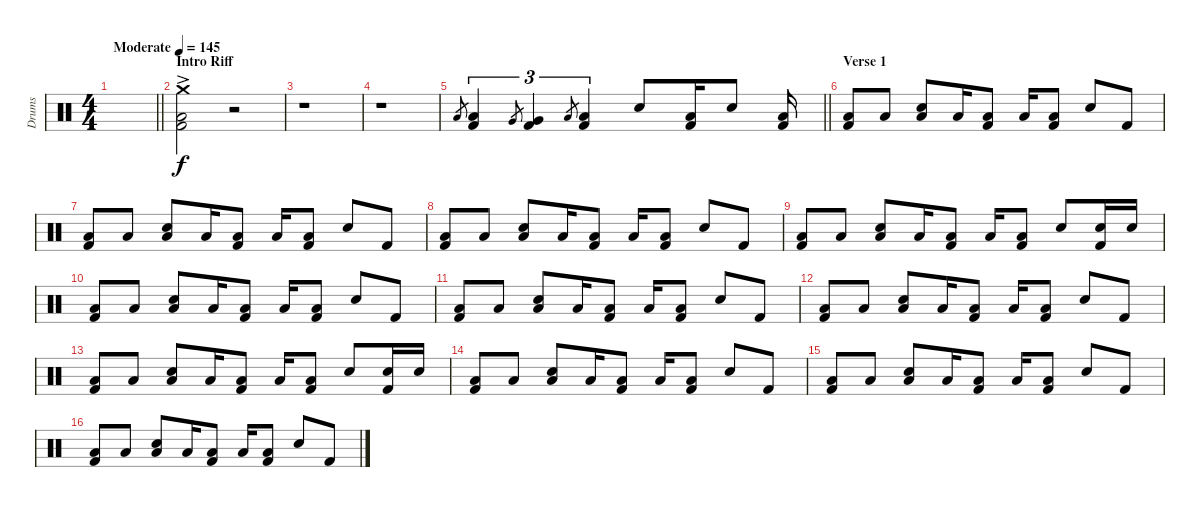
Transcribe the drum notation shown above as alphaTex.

\track ("Drums" "Drums") {instrument percussion}
\staff {score}
\articulation defaults
\ts (4 4)
\tempo (145 "Moderate")
\clef neutral
\barLineRight lightlight
\ks c
|
\section ("" "Intro Riff")
("Crash medium (hit)"{ac} "Low Floor Tom (hit)" "Kick (hit) 2").2 r.2 |
r.1 |
r.1 |
\barLineRight lightlight "Low Tom (hit)".8{gr dy f}
("Low Tom (hit)" "Kick (hit) 2").4{tu (3 2)} "Very Low Tom (hit)".8{gr} ("Very Low Tom (hit)" "Kick (hit) 2").4{tu (3 2)} "Low Floor Tom (hit)".8{gr} ("Low Floor Tom (hit)" "Kick (hit) 2").4{tu (3 2)} "Snare (hit) 2".8 ("Kick (hit) 2" "Low Floor Tom (hit)").16 "Snare (hit) 2".8 ("Kick (hit) 2" "Low Floor Tom (hit)").16 |
\section ("" "Verse 1")
("Low Tom (hit)" "Kick (hit) 2").8 "Low Tom (hit)".8 ("Low Tom (hit)" "Snare (hit) 2").8 "Low Floor Tom (hit)".16 ("Low Floor Tom (hit)" "Kick (hit) 2").8 "Low Floor Tom (hit)".16 ("Low Floor Tom (hit)" "Kick (hit) 2").8 "Snare (hit) 2".8 "Kick (hit) 2".8 |
("Low Tom (hit)" "Kick (hit) 2").8 "Low Tom (hit)".8 ("Low Tom (hit)" "Snare (hit) 2").8 "Low Floor Tom (hit)".16 ("Low Floor Tom (hit)" "Kick (hit) 2").8 "Low Floor Tom (hit)".16 ("Low Floor Tom (hit)" "Kick (hit) 2").8 "Snare (hit) 2".8 "Kick (hit) 2".8 |
("Low Tom (hit)" "Kick (hit) 2").8 "Low Tom (hit)".8 ("Low Tom (hit)" "Snare (hit) 2").8 "Low Floor Tom (hit)".16 ("Low Floor Tom (hit)" "Kick (hit) 2").8 "Low Floor Tom (hit)".16 ("Low Floor Tom (hit)" "Kick (hit) 2").8 "Snare (hit) 2".8 "Kick (hit) 2".8 |
("Low Tom (hit)" "Kick (hit) 2").8 "Low Tom (hit)".8 ("Low Tom (hit)" "Snare (hit) 2").8 "Low Floor Tom (hit)".16 ("Low Floor Tom (hit)" "Kick (hit) 2").8 "Low Floor Tom (hit)".16 ("Low Floor Tom (hit)" "Kick (hit) 2").8 "Snare (hit) 2".8 ("Snare (hit) 2" "Kick (hit) 2").16 "Snare (hit) 2".16 |
("Low Tom (hit)" "Kick (hit) 2").8 "Low Tom (hit)".8 ("Low Tom (hit)" "Snare (hit) 2").8 "Low Floor Tom (hit)".16 ("Low Floor Tom (hit)" "Kick (hit) 2").8 "Low Floor Tom (hit)".16 ("Low Floor Tom (hit)" "Kick (hit) 2").8 "Snare (hit) 2".8 "Kick (hit) 2".8 |
("Low Tom (hit)" "Kick (hit) 2").8 "Low Tom (hit)".8 ("Low Tom (hit)" "Snare (hit) 2").8 "Low Floor Tom (hit)".16 ("Low Floor Tom (hit)" "Kick (hit) 2").8 "Low Floor Tom (hit)".16 ("Low Floor Tom (hit)" "Kick (hit) 2").8 "Snare (hit) 2".8 "Kick (hit) 2".8 |
("Low Tom (hit)" "Kick (hit) 2").8 "Low Tom (hit)".8 ("Low Tom (hit)" "Snare (hit) 2").8 "Low Floor Tom (hit)".16 ("Low Floor Tom (hit)" "Kick (hit) 2").8 "Low Floor Tom (hit)".16 ("Low Floor Tom (hit)" "Kick (hit) 2").8 "Snare (hit) 2".8 "Kick (hit) 2".8 |
("Low Tom (hit)" "Kick (hit) 2").8 "Low Tom (hit)".8 ("Low Tom (hit)" "Snare (hit) 2").8 "Low Floor Tom (hit)".16 ("Low Floor Tom (hit)" "Kick (hit) 2").8 "Low Floor Tom (hit)".16 ("Low Floor Tom (hit)" "Kick (hit) 2").8 "Snare (hit) 2".8 ("Snare (hit) 2" "Kick (hit) 2").16 "Snare (hit) 2".16 |
("Low Tom (hit)" "Kick (hit) 2").8 "Low Tom (hit)".8 ("Low Tom (hit)" "Snare (hit) 2").8 "Low Floor Tom (hit)".16 ("Low Floor Tom (hit)" "Kick (hit) 2").8 "Low Floor Tom (hit)".16 ("Low Floor Tom (hit)" "Kick (hit) 2").8 "Snare (hit) 2".8 "Kick (hit) 2".8 |
("Low Tom (hit)" "Kick (hit) 2").8 "Low Tom (hit)".8 ("Low Tom (hit)" "Snare (hit) 2").8 "Low Floor Tom (hit)".16 ("Low Floor Tom (hit)" "Kick (hit) 2").8 "Low Floor Tom (hit)".16 ("Low Floor Tom (hit)" "Kick (hit) 2").8 "Snare (hit) 2".8 "Kick (hit) 2".8 |
("Low Tom (hit)" "Kick (hit) 2").8 "Low Tom (hit)".8 ("Low Tom (hit)" "Snare (hit) 2").8 "Low Floor Tom (hit)".16 ("Low Floor Tom (hit)" "Kick (hit) 2").8 "Low Floor Tom (hit)".16 ("Low Floor Tom (hit)" "Kick (hit) 2").8 "Snare (hit) 2".8 "Kick (hit) 2".8
